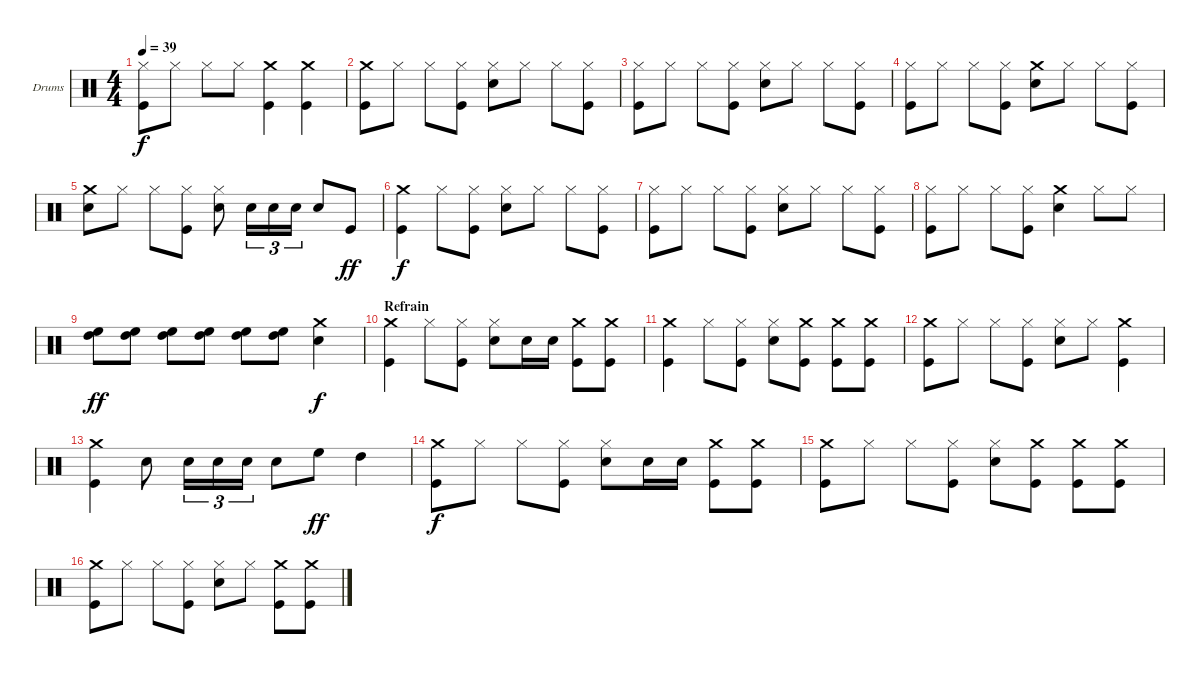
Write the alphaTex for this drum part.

\bracketExtendMode groupsimilarinstruments
\firstSystemTrackNameOrientation horizontal
\otherSystemsTrackNameOrientation horizontal
\track ("Drumkit" "Drums") {instrument percussion}
\staff {score}
\articulation defaults
\ts (4 4)
\tempo 39
\clef neutral
\ks c
("Hi-Hat (closed)" "Kick (hit)").8{dy f} "Hi-Hat (closed)".8 "Hi-Hat (closed)".8 "Hi-Hat (closed)".8 ("Crash medium (hit)" "Kick (hit)").4 ("Crash medium (hit)" "Kick (hit)").4 |
("Crash medium (hit)" "Kick (hit)").8 "Hi-Hat (closed)".8 "Hi-Hat (closed)".8 ("Hi-Hat (closed)" "Kick (hit)").8 ("Hi-Hat (closed)" "Snare (hit) 2").8 "Hi-Hat (closed)".8 "Hi-Hat (closed)".8 ("Hi-Hat (closed)" "Kick (hit)").8 |
("Hi-Hat (closed)" "Kick (hit)").8 "Hi-Hat (closed)".8 "Hi-Hat (closed)".8 ("Hi-Hat (closed)" "Kick (hit)").8 ("Hi-Hat (closed)" "Snare (hit) 2").8 "Hi-Hat (closed)".8 "Hi-Hat (closed)".8 ("Hi-Hat (closed)" "Kick (hit)").8 |
("Hi-Hat (closed)" "Kick (hit)").8 "Hi-Hat (closed)".8 "Hi-Hat (closed)".8 ("Hi-Hat (closed)" "Kick (hit)").8 ("Crash medium (hit)" "Snare (hit) 2").8 "Hi-Hat (closed)".8 "Hi-Hat (closed)".8 ("Hi-Hat (closed)" "Kick (hit)").8 |
("Crash medium (hit)" "Snare (hit) 2").8 "Hi-Hat (closed)".8 "Hi-Hat (closed)".8 ("Hi-Hat (closed)" "Kick (hit)").8 ("Hi-Hat (closed)" "Snare (hit) 2").8 "Snare (hit) 2".16{tu (3 2)} "Snare (hit) 2".16{tu (3 2)} "Snare (hit) 2".16{tu (3 2)} "Snare (hit) 2".8 "Kick (hit)".8{dy ff} |
("Crash medium (hit)" "Kick (hit)").4{dy f} "Hi-Hat (closed)".8 ("Hi-Hat (closed)" "Kick (hit)").8 ("Hi-Hat (closed)" "Snare (hit) 2").8 "Hi-Hat (closed)".8 "Hi-Hat (closed)".8 ("Hi-Hat (closed)" "Kick (hit)").8 |
("Hi-Hat (closed)" "Kick (hit)").8 "Hi-Hat (closed)".8 "Hi-Hat (closed)".8 ("Hi-Hat (closed)" "Kick (hit)").8 ("Hi-Hat (closed)" "Snare (hit) 2").8 "Hi-Hat (closed)".8 "Hi-Hat (closed)".8 ("Hi-Hat (closed)" "Kick (hit)").8 |
("Hi-Hat (closed)" "Kick (hit)").8 "Hi-Hat (closed)".8 "Hi-Hat (closed)".8 ("Hi-Hat (closed)" "Kick (hit)").8 ("Crash medium (hit)" "Snare (hit) 2").4 "Hi-Hat (closed)".8 "Hi-Hat (closed)".8 |
("High Tom (hit)" "High Floor Tom (hit)").8{dy ff} ("High Tom (hit)" "High Floor Tom (hit)").8 ("High Tom (hit)" "High Floor Tom (hit)").8 ("High Tom (hit)" "High Floor Tom (hit)").8 ("High Tom (hit)" "High Floor Tom (hit)").8 ("High Tom (hit)" "High Floor Tom (hit)").8 ("Crash medium (hit)" "Snare (hit) 2").4{dy f} |
\section ("" "Refrain")
("Crash medium (hit)" "Kick (hit)").4 "Hi-Hat (closed)".8 ("Hi-Hat (closed)" "Kick (hit)").8 ("Hi-Hat (closed)" "Snare (hit) 2").8 "Snare (hit) 2".16 "Snare (hit) 2".16 ("Crash medium (hit)" "Kick (hit)").8 ("Crash medium (hit)" "Kick (hit)").8 |
("Crash medium (hit)" "Kick (hit)").4 "Hi-Hat (closed)".8 ("Hi-Hat (closed)" "Kick (hit)").8 ("Hi-Hat (closed)" "Snare (hit) 2").8 ("Crash medium (hit)" "Kick (hit)").8 ("Crash medium (hit)" "Kick (hit)").8 ("Crash medium (hit)" "Kick (hit)").8 |
("Crash medium (hit)" "Kick (hit)").8 "Hi-Hat (closed)".8 "Hi-Hat (closed)".8 ("Hi-Hat (closed)" "Kick (hit)").8 ("Hi-Hat (closed)" "Snare (hit) 2").8 "Hi-Hat (closed)".8 ("Crash medium (hit)" "Kick (hit)").4 |
("Crash medium (hit)" "Kick (hit)").4 "Snare (hit) 2".8 "Snare (hit) 2".16{tu (3 2)} "Snare (hit) 2".16{tu (3 2)} "Snare (hit) 2".16{tu (3 2)} "Snare (hit) 2".8 "High Floor Tom (hit)".8{dy ff} "High Tom (hit)".4 |
("Crash medium (hit)" "Kick (hit)").8{dy f} "Hi-Hat (closed)".8 "Hi-Hat (closed)".8 ("Hi-Hat (closed)" "Kick (hit)").8 ("Hi-Hat (closed)" "Snare (hit) 2").8 "Snare (hit) 2".16 "Snare (hit) 2".16 ("Crash medium (hit)" "Kick (hit)").8 ("Crash medium (hit)" "Kick (hit)").8 |
("Crash medium (hit)" "Kick (hit)").8 "Hi-Hat (closed)".8 "Hi-Hat (closed)".8 ("Hi-Hat (closed)" "Kick (hit)").8 ("Hi-Hat (closed)" "Snare (hit) 2").8 ("Crash medium (hit)" "Kick (hit)").8 ("Crash medium (hit)" "Kick (hit)").8 ("Crash medium (hit)" "Kick (hit)").8 |
("Crash medium (hit)" "Kick (hit)").8 "Hi-Hat (closed)".8 "Hi-Hat (closed)".8 ("Hi-Hat (closed)" "Kick (hit)").8 ("Hi-Hat (closed)" "Snare (hit) 2").8 "Hi-Hat (closed)".8 ("Crash medium (hit)" "Kick (hit)").8 ("Crash medium (hit)" "Kick (hit)").8
